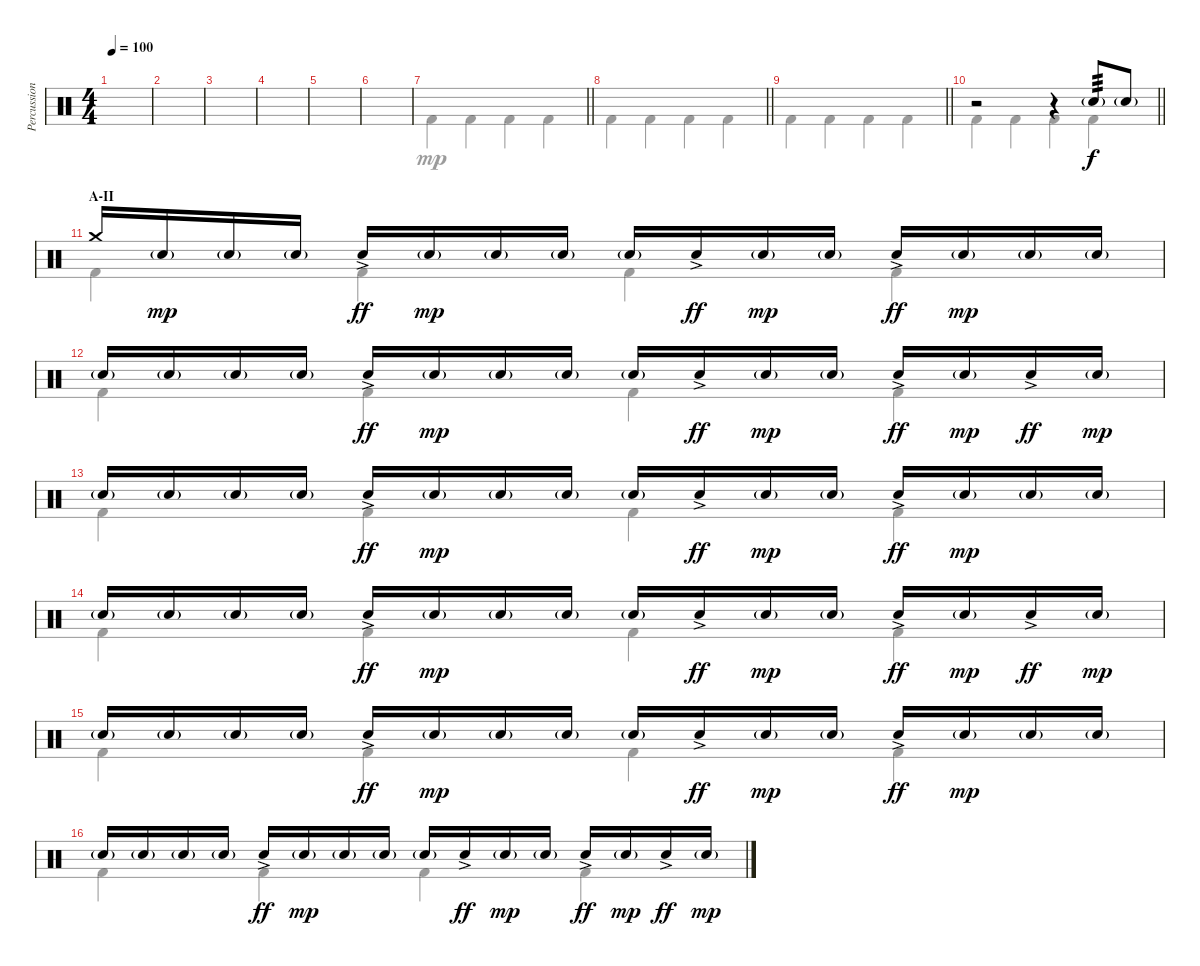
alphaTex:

\track ("Percussion" "Percussion") {instrument percussion}
\staff {score}
\articulation defaults
\voice
\ts (4 4)
\tempo 100
\clef neutral
\ks c
|
|
|
|
|
|
\barLineRight lightlight
|
\barLineRight lightlight
|
\section ("" "")
\barLineRight lightlight
|
\barLineRight lightlight
r.2 r.4 "Snare (hit) 2"{g}.8{tp 3} "Snare (hit) 2"{g}.8 |
\section ("" "A-II")
"Crash medium (hit)".16{dy f} "Snare (hit) 2"{g}.16{dy mp} "Snare (hit) 2"{g}.16 "Snare (hit) 2"{g}.16 "Snare (hit) 2"{ac}.16{dy ff} "Snare (hit) 2"{g}.16{dy mp} "Snare (hit) 2"{g}.16 "Snare (hit) 2"{g}.16 "Snare (hit) 2"{g}.16 "Snare (hit) 2"{ac}.16{dy ff} "Snare (hit) 2"{g}.16{dy mp} "Snare (hit) 2"{g}.16 "Snare (hit) 2"{ac}.16{dy ff} "Snare (hit) 2"{g}.16{dy mp} "Snare (hit) 2"{g}.16 "Snare (hit) 2"{g}.16 |
"Snare (hit) 2"{g}.16 "Snare (hit) 2"{g}.16 "Snare (hit) 2"{g}.16 "Snare (hit) 2"{g}.16 "Snare (hit) 2"{ac}.16{dy ff} "Snare (hit) 2"{g}.16{dy mp} "Snare (hit) 2"{g}.16 "Snare (hit) 2"{g}.16 "Snare (hit) 2"{g}.16 "Snare (hit) 2"{ac}.16{dy ff} "Snare (hit) 2"{g}.16{dy mp} "Snare (hit) 2"{g}.16 "Snare (hit) 2"{ac}.16{dy ff} "Snare (hit) 2"{g}.16{dy mp} "Snare (hit) 2"{ac}.16{dy ff} "Snare (hit) 2"{g}.16{dy mp} |
"Snare (hit) 2"{g}.16 "Snare (hit) 2"{g}.16 "Snare (hit) 2"{g}.16 "Snare (hit) 2"{g}.16 "Snare (hit) 2"{ac}.16{dy ff} "Snare (hit) 2"{g}.16{dy mp} "Snare (hit) 2"{g}.16 "Snare (hit) 2"{g}.16 "Snare (hit) 2"{g}.16 "Snare (hit) 2"{ac}.16{dy ff} "Snare (hit) 2"{g}.16{dy mp} "Snare (hit) 2"{g}.16 "Snare (hit) 2"{ac}.16{dy ff} "Snare (hit) 2"{g}.16{dy mp} "Snare (hit) 2"{g}.16 "Snare (hit) 2"{g}.16 |
"Snare (hit) 2"{g}.16 "Snare (hit) 2"{g}.16 "Snare (hit) 2"{g}.16 "Snare (hit) 2"{g}.16 "Snare (hit) 2"{ac}.16{dy ff} "Snare (hit) 2"{g}.16{dy mp} "Snare (hit) 2"{g}.16 "Snare (hit) 2"{g}.16 "Snare (hit) 2"{g}.16 "Snare (hit) 2"{ac}.16{dy ff} "Snare (hit) 2"{g}.16{dy mp} "Snare (hit) 2"{g}.16 "Snare (hit) 2"{ac}.16{dy ff} "Snare (hit) 2"{g}.16{dy mp} "Snare (hit) 2"{ac}.16{dy ff} "Snare (hit) 2"{g}.16{dy mp} |
"Snare (hit) 2"{g}.16 "Snare (hit) 2"{g}.16 "Snare (hit) 2"{g}.16 "Snare (hit) 2"{g}.16 "Snare (hit) 2"{ac}.16{dy ff} "Snare (hit) 2"{g}.16{dy mp} "Snare (hit) 2"{g}.16 "Snare (hit) 2"{g}.16 "Snare (hit) 2"{g}.16 "Snare (hit) 2"{ac}.16{dy ff} "Snare (hit) 2"{g}.16{dy mp} "Snare (hit) 2"{g}.16 "Snare (hit) 2"{ac}.16{dy ff} "Snare (hit) 2"{g}.16{dy mp} "Snare (hit) 2"{g}.16 "Snare (hit) 2"{g}.16 |
"Snare (hit) 2"{g}.16 "Snare (hit) 2"{g}.16 "Snare (hit) 2"{g}.16 "Snare (hit) 2"{g}.16 "Snare (hit) 2"{ac}.16{dy ff} "Snare (hit) 2"{g}.16{dy mp} "Snare (hit) 2"{g}.16 "Snare (hit) 2"{g}.16 "Snare (hit) 2"{g}.16 "Snare (hit) 2"{ac}.16{dy ff} "Snare (hit) 2"{g}.16{dy mp} "Snare (hit) 2"{g}.16 "Snare (hit) 2"{ac}.16{dy ff} "Snare (hit) 2"{g}.16{dy mp} "Snare (hit) 2"{ac}.16{dy ff} "Snare (hit) 2"{g}.16{dy mp}
\voice
\clef neutral
\ottava regular
\simile none
\ks c
|
|
|
|
|
|
\barLineRight lightlight "Kick (hit) 2".4 "Kick (hit) 2".4 "Kick (hit) 2".4 "Kick (hit) 2".4
|
\barLineRight lightlight "Kick (hit) 2".4 "Kick (hit) 2".4 "Kick (hit) 2".4 "Kick (hit) 2".4
|
\barLineRight lightlight "Kick (hit) 2".4 "Kick (hit) 2".4 "Kick (hit) 2".4 "Kick (hit) 2".4
|
\barLineRight lightlight "Kick (hit) 2".4 "Kick (hit) 2".4 "Kick (hit) 2".4 "Kick (hit) 2".4
|
"Kick (hit) 2".4 "Kick (hit) 2".4 "Kick (hit) 2".4 "Kick (hit) 2".4 |
"Kick (hit) 2".4 "Kick (hit) 2".4 "Kick (hit) 2".4 "Kick (hit) 2".4 |
"Kick (hit) 2".4 "Kick (hit) 2".4 "Kick (hit) 2".4 "Kick (hit) 2".4 |
"Kick (hit) 2".4 "Kick (hit) 2".4 "Kick (hit) 2".4 "Kick (hit) 2".4 |
"Kick (hit) 2".4 "Kick (hit) 2".4 "Kick (hit) 2".4 "Kick (hit) 2".4 |
"Kick (hit) 2".4 "Kick (hit) 2".4 "Kick (hit) 2".4 "Kick (hit) 2".4
